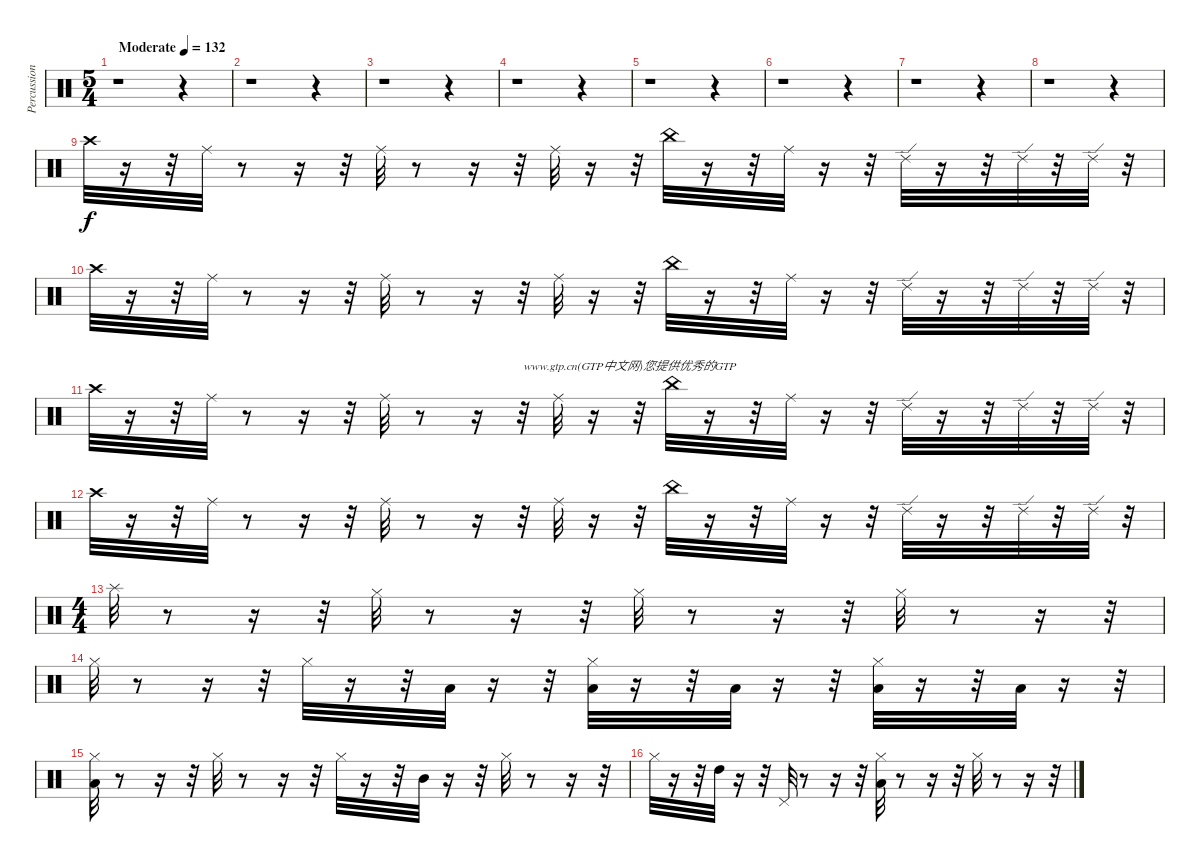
\track ("Percussions" "Percussion") {instrument percussion}
\staff {score}
\articulation defaults
\ts (5 4)
\tempo (132 "Moderate")
\clef neutral
\ks c
r.1{dy f} r.4 |
r.1 r.4 |
r.1 r.4 |
r.1 r.4 |
r.1 r.4 |
r.1 r.4 |
r.1 r.4 |
r.1 r.4 |
"Crash high (hit)".32 r.16 r.32 "Ride (middle)".32 r.8 r.16 r.32 "Ride (middle)".32 r.8 r.16 r.32 "Ride (middle)".32 r.16 r.32 "China (hit)".32 r.16 r.32 "Ride (middle)".32 r.16 r.32 "Ride (edge) 2".32 r.16 r.32 "Ride (edge) 2".32 r.32 "Ride (edge) 2".32 r.32 |
"Crash high (hit)".32 r.16 r.32 "Ride (middle)".32 r.8 r.16 r.32 "Ride (middle)".32 r.8 r.16 r.32 "Ride (middle)".32 r.16 r.32 "China (hit)".32 r.16 r.32 "Ride (middle)".32 r.16 r.32 "Ride (edge) 2".32 r.16 r.32 "Ride (edge) 2".32 r.32 "Ride (edge) 2".32 r.32 |
"Crash high (hit)".32 r.16 r.32 "Ride (middle)".32 r.8 r.16 r.32 "Ride (middle)".32 r.8 r.16 r.32{txt "www.gtp.cn(GTP中文网)您提供优秀的GTP"} "Ride (middle)".32 r.16 r.32 "China (hit)".32 r.16 r.32 "Ride (middle)".32 r.16 r.32 "Ride (edge) 2".32 r.16 r.32 "Ride (edge) 2".32 r.32 "Ride (edge) 2".32 r.32 |
"Crash high (hit)".32 r.16 r.32 "Ride (middle)".32 r.8 r.16 r.32 "Ride (middle)".32 r.8 r.16 r.32 "Ride (middle)".32 r.16 r.32 "China (hit)".32 r.16 r.32 "Ride (middle)".32 r.16 r.32 "Ride (edge) 2".32 r.16 r.32 "Ride (edge) 2".32 r.32 "Ride (edge) 2".32 r.32 |
\ts (4 4)
"Splash (hit)".32 r.8 r.16 r.32 "Hi-Hat (closed)".32 r.8 r.16 r.32 "Hi-Hat (closed)".32 r.8 r.16 r.32 "Hi-Hat (closed)".32 r.8 r.16 r.32 |
"Hi-Hat (closed)".32 r.8 r.16 r.32 "Hi-Hat (closed)".32 r.16 r.32 "Low Tom (hit)".32 r.16 r.32 ("Hi-Hat (closed)" "Low Tom (hit)").32 r.16 r.32 "Low Tom (hit)".32 r.16 r.32 ("Hi-Hat (closed)" "Low Tom (hit)").32 r.16 r.32 "Low Tom (hit)".32 r.16 r.32 |
("Hi-Hat (closed)" "Low Tom (hit)").32 r.8 r.16 r.32 "Hi-Hat (closed)".32 r.8 r.16 r.32 "Hi-Hat (closed)".32 r.16 r.32 "Mid Tom (hit)".32 r.16 r.32 "Hi-Hat (closed)".32 r.8 r.16 r.32 |
"Hi-Hat (closed)".32 r.16 r.32 "High Tom (hit)".32 r.16 r.32 "Pedal Hi-Hat (hit)".32 r.8 r.16 r.32 ("Hi-Hat (closed)" "Low Tom (hit)").32 r.8 r.16 r.32 "Hi-Hat (closed)".32 r.8 r.16 r.32
